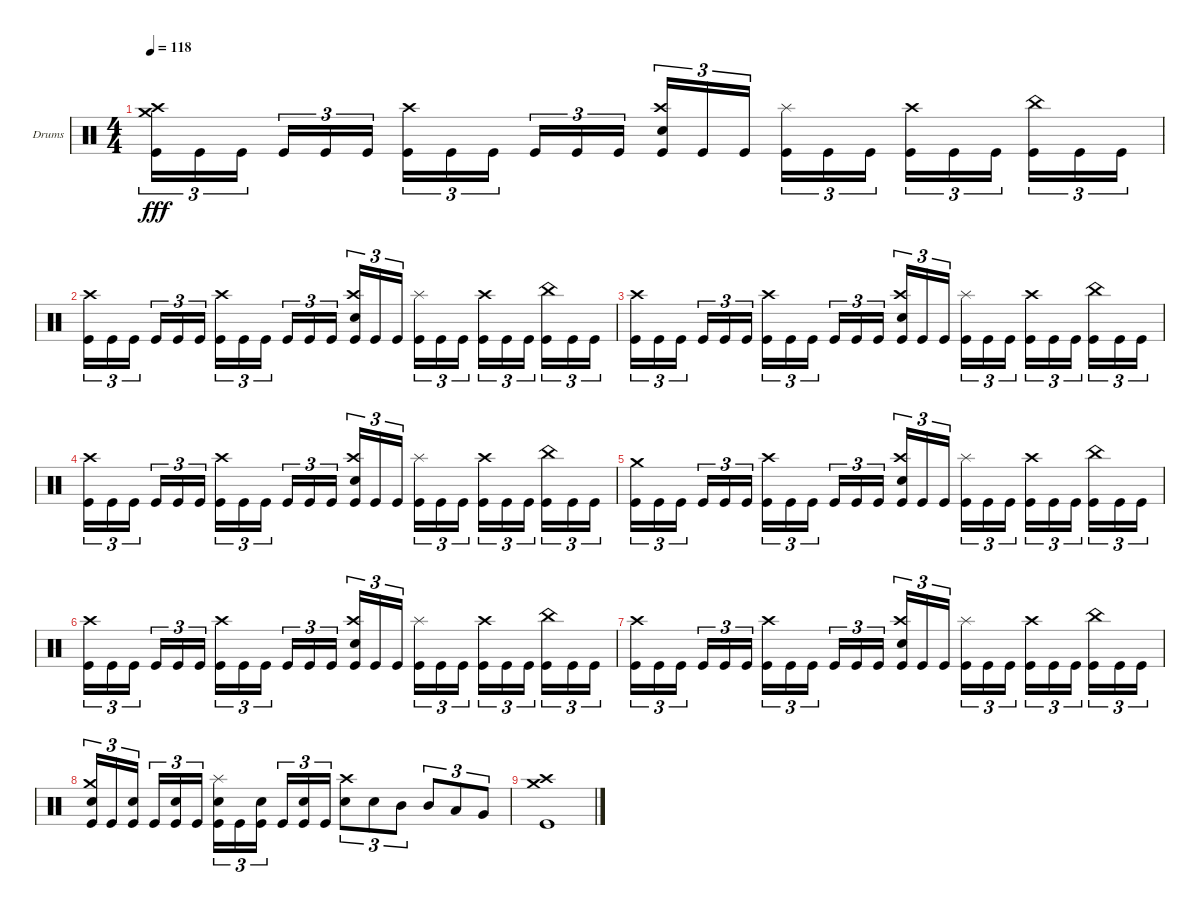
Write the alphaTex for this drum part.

\bracketExtendMode groupsimilarinstruments
\firstSystemTrackNameOrientation horizontal
\otherSystemsTrackNameOrientation horizontal
\track ("Drumkit" "Drums") {instrument percussion}
\staff {score}
\articulation defaults
\ts (4 4)
\tempo 118
\clef neutral
\ks c
("Kick (hit)" "Crash medium (hit)" "Crash high (hit)").16{tu (3 2) dy fff} "Kick (hit)".16{tu (3 2)} "Kick (hit)".16{tu (3 2)} "Kick (hit)".16{tu (3 2)} "Kick (hit)".16{tu (3 2)} "Kick (hit)".16{tu (3 2)} ("Kick (hit)" "Crash high (hit)").16{tu (3 2)} "Kick (hit)".16{tu (3 2)} "Kick (hit)".16{tu (3 2)} "Kick (hit)".16{tu (3 2)} "Kick (hit)".16{tu (3 2)} "Kick (hit)".16{tu (3 2)} ("Kick (hit)" "Snare (hit) 2" "Crash high (hit)").16{tu (3 2)} "Kick (hit)".16{tu (3 2)} "Kick (hit)".16{tu (3 2)} ("Kick (hit)" "Splash (hit)").16{tu (3 2)} "Kick (hit)".16{tu (3 2)} "Kick (hit)".16{tu (3 2)} ("Kick (hit)" "Crash high (hit)").16{tu (3 2)} "Kick (hit)".16{tu (3 2)} "Kick (hit)".16{tu (3 2)} ("Kick (hit)" "China (hit)").16{tu (3 2)} "Kick (hit)".16{tu (3 2)} "Kick (hit)".16{tu (3 2)} |
("Kick (hit)" "Crash high (hit)").16{tu (3 2)} "Kick (hit)".16{tu (3 2)} "Kick (hit)".16{tu (3 2)} "Kick (hit)".16{tu (3 2)} "Kick (hit)".16{tu (3 2)} "Kick (hit)".16{tu (3 2)} ("Kick (hit)" "Crash high (hit)").16{tu (3 2)} "Kick (hit)".16{tu (3 2)} "Kick (hit)".16{tu (3 2)} "Kick (hit)".16{tu (3 2)} "Kick (hit)".16{tu (3 2)} "Kick (hit)".16{tu (3 2)} ("Kick (hit)" "Snare (hit) 2" "Crash high (hit)").16{tu (3 2)} "Kick (hit)".16{tu (3 2)} "Kick (hit)".16{tu (3 2)} ("Kick (hit)" "Splash (hit)").16{tu (3 2)} "Kick (hit)".16{tu (3 2)} "Kick (hit)".16{tu (3 2)} ("Kick (hit)" "Crash high (hit)").16{tu (3 2)} "Kick (hit)".16{tu (3 2)} "Kick (hit)".16{tu (3 2)} ("Kick (hit)" "China (hit)").16{tu (3 2)} "Kick (hit)".16{tu (3 2)} "Kick (hit)".16{tu (3 2)} |
("Kick (hit)" "Crash high (hit)").16{tu (3 2)} "Kick (hit)".16{tu (3 2)} "Kick (hit)".16{tu (3 2)} "Kick (hit)".16{tu (3 2)} "Kick (hit)".16{tu (3 2)} "Kick (hit)".16{tu (3 2)} ("Kick (hit)" "Crash high (hit)").16{tu (3 2)} "Kick (hit)".16{tu (3 2)} "Kick (hit)".16{tu (3 2)} "Kick (hit)".16{tu (3 2)} "Kick (hit)".16{tu (3 2)} "Kick (hit)".16{tu (3 2)} ("Kick (hit)" "Snare (hit) 2" "Crash high (hit)").16{tu (3 2)} "Kick (hit)".16{tu (3 2)} "Kick (hit)".16{tu (3 2)} ("Kick (hit)" "Splash (hit)").16{tu (3 2)} "Kick (hit)".16{tu (3 2)} "Kick (hit)".16{tu (3 2)} ("Kick (hit)" "Crash high (hit)").16{tu (3 2)} "Kick (hit)".16{tu (3 2)} "Kick (hit)".16{tu (3 2)} ("Kick (hit)" "China (hit)").16{tu (3 2)} "Kick (hit)".16{tu (3 2)} "Kick (hit)".16{tu (3 2)} |
("Kick (hit)" "Crash high (hit)").16{tu (3 2)} "Kick (hit)".16{tu (3 2)} "Kick (hit)".16{tu (3 2)} "Kick (hit)".16{tu (3 2)} "Kick (hit)".16{tu (3 2)} "Kick (hit)".16{tu (3 2)} ("Kick (hit)" "Crash high (hit)").16{tu (3 2)} "Kick (hit)".16{tu (3 2)} "Kick (hit)".16{tu (3 2)} "Kick (hit)".16{tu (3 2)} "Kick (hit)".16{tu (3 2)} "Kick (hit)".16{tu (3 2)} ("Kick (hit)" "Snare (hit) 2" "Crash high (hit)").16{tu (3 2)} "Kick (hit)".16{tu (3 2)} "Kick (hit)".16{tu (3 2)} ("Kick (hit)" "Splash (hit)").16{tu (3 2)} "Kick (hit)".16{tu (3 2)} "Kick (hit)".16{tu (3 2)} ("Kick (hit)" "Crash high (hit)").16{tu (3 2)} "Kick (hit)".16{tu (3 2)} "Kick (hit)".16{tu (3 2)} ("Kick (hit)" "China (hit)").16{tu (3 2)} "Kick (hit)".16{tu (3 2)} "Kick (hit)".16{tu (3 2)} |
("Kick (hit)" "Crash medium (hit)").16{tu (3 2)} "Kick (hit)".16{tu (3 2)} "Kick (hit)".16{tu (3 2)} "Kick (hit)".16{tu (3 2)} "Kick (hit)".16{tu (3 2)} "Kick (hit)".16{tu (3 2)} ("Kick (hit)" "Crash high (hit)").16{tu (3 2)} "Kick (hit)".16{tu (3 2)} "Kick (hit)".16{tu (3 2)} "Kick (hit)".16{tu (3 2)} "Kick (hit)".16{tu (3 2)} "Kick (hit)".16{tu (3 2)} ("Kick (hit)" "Snare (hit) 2" "Crash high (hit)").16{tu (3 2)} "Kick (hit)".16{tu (3 2)} "Kick (hit)".16{tu (3 2)} ("Kick (hit)" "Splash (hit)").16{tu (3 2)} "Kick (hit)".16{tu (3 2)} "Kick (hit)".16{tu (3 2)} ("Kick (hit)" "Crash high (hit)").16{tu (3 2)} "Kick (hit)".16{tu (3 2)} "Kick (hit)".16{tu (3 2)} ("Kick (hit)" "China (hit)").16{tu (3 2)} "Kick (hit)".16{tu (3 2)} "Kick (hit)".16{tu (3 2)} |
("Kick (hit)" "Crash high (hit)").16{tu (3 2)} "Kick (hit)".16{tu (3 2)} "Kick (hit)".16{tu (3 2)} "Kick (hit)".16{tu (3 2)} "Kick (hit)".16{tu (3 2)} "Kick (hit)".16{tu (3 2)} ("Kick (hit)" "Crash high (hit)").16{tu (3 2)} "Kick (hit)".16{tu (3 2)} "Kick (hit)".16{tu (3 2)} "Kick (hit)".16{tu (3 2)} "Kick (hit)".16{tu (3 2)} "Kick (hit)".16{tu (3 2)} ("Kick (hit)" "Snare (hit) 2" "Crash high (hit)").16{tu (3 2)} "Kick (hit)".16{tu (3 2)} "Kick (hit)".16{tu (3 2)} ("Kick (hit)" "Splash (hit)").16{tu (3 2)} "Kick (hit)".16{tu (3 2)} "Kick (hit)".16{tu (3 2)} ("Kick (hit)" "Crash high (hit)").16{tu (3 2)} "Kick (hit)".16{tu (3 2)} "Kick (hit)".16{tu (3 2)} ("Kick (hit)" "China (hit)").16{tu (3 2)} "Kick (hit)".16{tu (3 2)} "Kick (hit)".16{tu (3 2)} |
("Kick (hit)" "Crash high (hit)").16{tu (3 2)} "Kick (hit)".16{tu (3 2)} "Kick (hit)".16{tu (3 2)} "Kick (hit)".16{tu (3 2)} "Kick (hit)".16{tu (3 2)} "Kick (hit)".16{tu (3 2)} ("Kick (hit)" "Crash high (hit)").16{tu (3 2)} "Kick (hit)".16{tu (3 2)} "Kick (hit)".16{tu (3 2)} "Kick (hit)".16{tu (3 2)} "Kick (hit)".16{tu (3 2)} "Kick (hit)".16{tu (3 2)} ("Kick (hit)" "Snare (hit) 2" "Crash high (hit)").16{tu (3 2)} "Kick (hit)".16{tu (3 2)} "Kick (hit)".16{tu (3 2)} ("Kick (hit)" "Splash (hit)").16{tu (3 2)} "Kick (hit)".16{tu (3 2)} "Kick (hit)".16{tu (3 2)} ("Kick (hit)" "Crash high (hit)").16{tu (3 2)} "Kick (hit)".16{tu (3 2)} "Kick (hit)".16{tu (3 2)} ("Kick (hit)" "China (hit)").16{tu (3 2)} "Kick (hit)".16{tu (3 2)} "Kick (hit)".16{tu (3 2)} |
("Kick (hit)" "Snare (hit) 2" "Crash medium (hit)").16{tu (3 2)} "Kick (hit)".16{tu (3 2)} ("Kick (hit)" "Snare (hit) 2").16{tu (3 2)} "Kick (hit)".16{tu (3 2)} ("Kick (hit)" "Snare (hit) 2").16{tu (3 2)} "Kick (hit)".16{tu (3 2)} ("Kick (hit)" "Snare (hit) 2" "Splash (hit)").16{tu (3 2)} "Kick (hit)".16{tu (3 2)} ("Kick (hit)" "Snare (hit) 2").16{tu (3 2)} "Kick (hit)".16{tu (3 2)} ("Kick (hit)" "Snare (hit) 2").16{tu (3 2)} "Kick (hit)".16{tu (3 2)} ("Snare (hit) 2" "Crash high (hit)").8{tu (3 2)} "Snare (hit) 2".8{tu (3 2)} "Mid Tom (hit)".8{tu (3 2)} "Mid Tom (hit)".8{tu (3 2)} "Low Tom (hit)".8{tu (3 2)} "Very Low Tom (hit)".8{tu (3 2)} |
("Kick (hit)" "Crash high (hit)" "Crash medium (hit)").1
